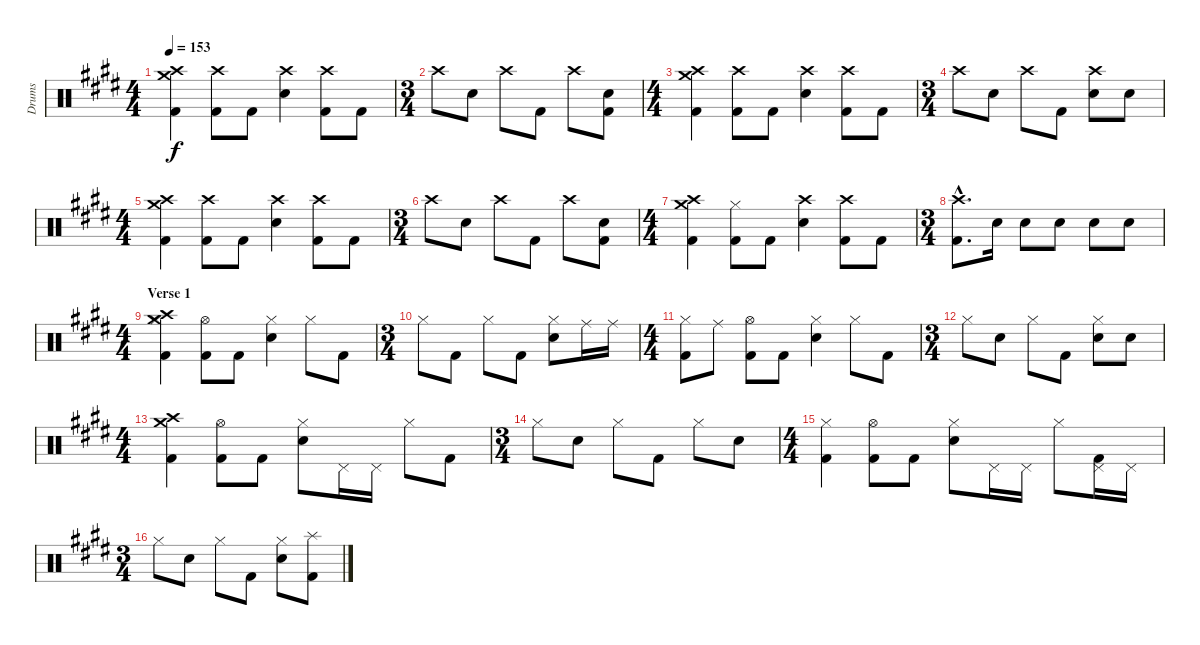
\track ("Drums" "Drums") {instrument percussion}
\staff {score}
\articulation defaults
\ts (4 4)
\tempo 153
\clef neutral
\ks e
("Kick (hit) 2" "Crash high (hit)" "Crash medium (hit)").4{dy f} ("Kick (hit) 2" "Crash high (hit)").8 "Kick (hit) 2".8 ("Electric Snare (hit)" "Crash high (hit)").4 ("Kick (hit) 2" "Crash high (hit)").8 "Kick (hit) 2".8 |
\ts (3 4)
"Crash high (hit)".8 "Electric Snare (hit)".8 "Crash high (hit)".8 "Kick (hit) 2".8 "Crash high (hit)".8 ("Electric Snare (hit)" "Kick (hit) 2").8 |
\ts (4 4)
("Kick (hit) 2" "Crash medium (hit)" "Crash high (hit)").4 ("Kick (hit) 2" "Crash high (hit)").8 "Kick (hit) 2".8 ("Electric Snare (hit)" "Crash high (hit)").4 ("Kick (hit) 2" "Crash high (hit)").8 "Kick (hit) 2".8 |
\ts (3 4)
"Crash high (hit)".8 "Electric Snare (hit)".8 "Crash high (hit)".8 "Kick (hit) 2".8 ("Crash high (hit)" "Electric Snare (hit)").8 "Electric Snare (hit)".8 |
\ts (4 4)
("Kick (hit) 2" "Crash high (hit)" "Crash medium (hit)").4 ("Kick (hit) 2" "Crash high (hit)").8 "Kick (hit) 2".8 ("Electric Snare (hit)" "Crash high (hit)").4 ("Kick (hit) 2" "Crash high (hit)").8 "Kick (hit) 2".8 |
\ts (3 4)
"Crash high (hit)".8 "Electric Snare (hit)".8 "Crash high (hit)".8 "Kick (hit) 2".8 "Crash high (hit)".8 ("Electric Snare (hit)" "Kick (hit) 2").8 |
\ts (4 4)
("Kick (hit) 2" "Crash medium (hit)" "Crash high (hit)").4 ("Kick (hit) 2" "Hi-Hat (closed)").8 "Kick (hit) 2".8 ("Electric Snare (hit)" "Crash high (hit)").4 ("Kick (hit) 2" "Crash high (hit)").8 "Kick (hit) 2".8 |
\ts (3 4)
("Kick (hit) 2"{hac} "Crash high (hit)"{hac}).8{d} "Electric Snare (hit)".16 "Electric Snare (hit)".8 "Electric Snare (hit)".8 "Electric Snare (hit)".8 "Electric Snare (hit)".8 |
\ts (4 4)
\section ("" "Verse 1")
("Crash medium (hit)" "Crash high (hit)" "Kick (hit) 2" "Hi-Hat (closed)").4 ("Kick (hit) 2" "Hi-Hat (open)").8 "Kick (hit) 2".8 ("Electric Snare (hit)" "Hi-Hat (closed)").4 "Hi-Hat (closed)".8 "Kick (hit) 2".8 |
\ts (3 4)
"Hi-Hat (closed)".8 "Kick (hit) 2".8 "Hi-Hat (closed)".8 "Kick (hit) 2".8 ("Electric Snare (hit)" "Hi-Hat (closed)").8 "Ride (middle)".16 "Ride (middle)".16 |
\ts (4 4)
("Kick (hit) 2" "Hi-Hat (closed)").8 "Ride (middle)".8 ("Kick (hit) 2" "Hi-Hat (open)").8 "Kick (hit) 2".8 ("Electric Snare (hit)" "Hi-Hat (closed)").4 "Hi-Hat (closed)".8 "Kick (hit) 2".8 |
\ts (3 4)
"Hi-Hat (closed)".8 "Electric Snare (hit)".8 "Hi-Hat (closed)".8 "Kick (hit) 2".8 ("Electric Snare (hit)" "Hi-Hat (closed)").8 "Electric Snare (hit)".8 |
\ts (4 4)
("Kick (hit) 2" "Crash high (hit)" "Crash medium (hit)").4 ("Kick (hit) 2" "Hi-Hat (open)").8 "Kick (hit) 2".8 ("Electric Snare (hit)" "Hi-Hat (closed)").8 "Pedal Hi-Hat (hit)".16 "Pedal Hi-Hat (hit)".16 "Hi-Hat (closed)".8 "Kick (hit) 2".8 |
\ts (3 4)
"Hi-Hat (closed)".8 "Electric Snare (hit)".8 "Hi-Hat (closed)".8 "Kick (hit) 2".8 "Hi-Hat (closed)".8 "Electric Snare (hit)".8 |
\ts (4 4)
("Kick (hit) 2" "Hi-Hat (closed)").4 ("Kick (hit) 2" "Hi-Hat (open)").8 "Kick (hit) 2".8 ("Electric Snare (hit)" "Hi-Hat (closed)").8 "Pedal Hi-Hat (hit)".16 "Pedal Hi-Hat (hit)".16 "Hi-Hat (closed)".8 ("Kick (hit) 2" "Pedal Hi-Hat (hit)").16 "Pedal Hi-Hat (hit)".16 |
\ts (3 4)
"Hi-Hat (closed)".8 "Electric Snare (hit)".8 "Hi-Hat (closed)".8 "Kick (hit) 2".8 ("Electric Snare (hit)" "Hi-Hat (closed)").8 ("Splash (hit)" "Kick (hit) 2").8
